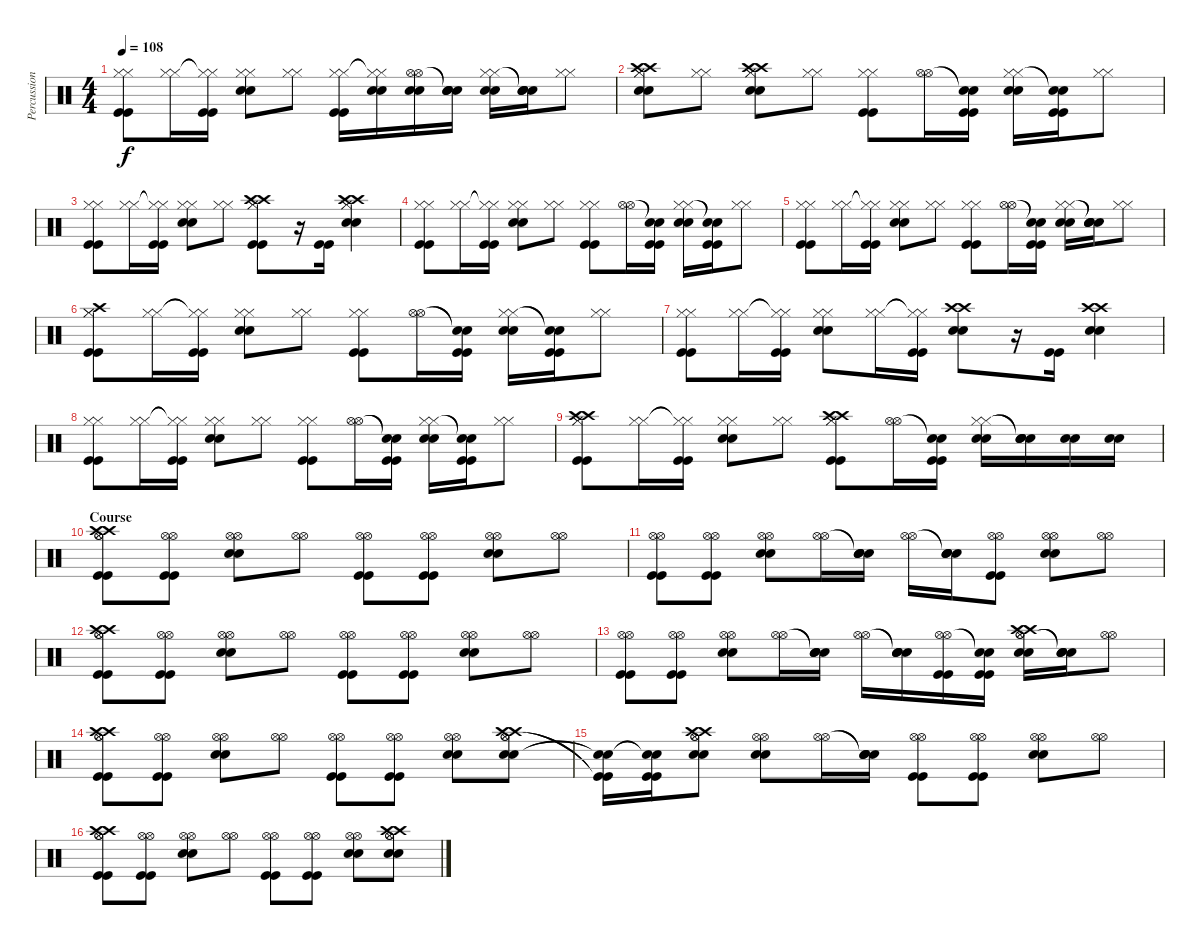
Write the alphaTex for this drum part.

\track ("Percussion" "Percussion") {instrument percussion}
\staff {score}
\articulation defaults
\ts (4 4)
\tempo 108
\clef neutral
\ks c
("Hi-Hat (closed)" "Hi-Hat (closed)" "Kick (hit)" "Kick (hit)").8{dy f} ("Hi-Hat (closed)" "Hi-Hat (closed)").16 ("Hi-Hat (closed)"{t} "Hi-Hat (closed)"{t} "Kick (hit)" "Kick (hit)").16 ("Hi-Hat (closed)" "Hi-Hat (closed)" "Electric Snare (hit)" "Electric Snare (hit)").8 ("Hi-Hat (closed)" "Hi-Hat (closed)").8 ("Hi-Hat (closed)" "Hi-Hat (closed)" "Kick (hit)" "Kick (hit)").16 ("Hi-Hat (closed)"{t} "Hi-Hat (closed)"{t} "Electric Snare (hit)" "Electric Snare (hit)").16 ("Hi-Hat (open)" "Hi-Hat (open)" "Electric Snare (hit)" "Electric Snare (hit)").16 ("Snare (hit)"{t} "Snare (hit)"{t} "Electric Snare (hit)" "Electric Snare (hit)").16 ("Hi-Hat (closed)" "Hi-Hat (closed)" "Electric Snare (hit)" "Electric Snare (hit)").16 ("Snare (hit)"{t} "Snare (hit)"{t} "Electric Snare (hit)" "Electric Snare (hit)").16 ("Hi-Hat (closed)" "Hi-Hat (closed)").8 |
("Hi-Hat (closed)" "Hi-Hat (closed)" "Electric Snare (hit)" "Electric Snare (hit)" "Crash high (hit)" "Crash high (hit)").8 ("Hi-Hat (closed)" "Hi-Hat (closed)").8 ("Hi-Hat (closed)" "Hi-Hat (closed)" "Electric Snare (hit)" "Electric Snare (hit)" "Crash high (hit)" "Crash high (hit)").8 ("Hi-Hat (closed)" "Hi-Hat (closed)").8 ("Hi-Hat (closed)" "Hi-Hat (closed)" "Kick (hit)" "Kick (hit)").8 ("Hi-Hat (open)" "Hi-Hat (open)").16 ("Snare (hit)"{t} "Snare (hit)"{t} "Kick (hit)" "Kick (hit)").16 ("Hi-Hat (closed)" "Hi-Hat (closed)" "Electric Snare (hit)" "Electric Snare (hit)").16 ("Snare (hit)"{t} "Snare (hit)"{t} "Kick (hit)" "Kick (hit)").16 ("Hi-Hat (closed)" "Hi-Hat (closed)").8 |
("Hi-Hat (closed)" "Hi-Hat (closed)" "Kick (hit)" "Kick (hit)").8 ("Hi-Hat (closed)" "Hi-Hat (closed)").16 ("Hi-Hat (closed)"{t} "Hi-Hat (closed)"{t} "Kick (hit)" "Kick (hit)").16 ("Hi-Hat (closed)" "Hi-Hat (closed)" "Electric Snare (hit)" "Electric Snare (hit)").8 ("Hi-Hat (closed)" "Hi-Hat (closed)").8 ("Hi-Hat (closed)" "Hi-Hat (closed)" "Kick (hit)" "Kick (hit)" "Crash high (hit)" "Crash high (hit)").8 r.16 ("Kick (hit)" "Kick (hit)").16 ("Hi-Hat (closed)" "Hi-Hat (closed)" "Electric Snare (hit)" "Electric Snare (hit)" "Crash high (hit)" "Crash high (hit)").4 |
("Hi-Hat (closed)" "Hi-Hat (closed)" "Kick (hit)" "Kick (hit)").8 ("Hi-Hat (closed)" "Hi-Hat (closed)").16 ("Hi-Hat (closed)"{t} "Hi-Hat (closed)"{t} "Kick (hit)" "Kick (hit)").16 ("Hi-Hat (closed)" "Hi-Hat (closed)" "Electric Snare (hit)" "Electric Snare (hit)").8 ("Hi-Hat (closed)" "Hi-Hat (closed)").8 ("Hi-Hat (closed)" "Hi-Hat (closed)" "Kick (hit)" "Kick (hit)").8 ("Hi-Hat (open)" "Hi-Hat (open)").16 ("Snare (hit)"{t} "Snare (hit)"{t} "Kick (hit)" "Kick (hit)").16 ("Hi-Hat (closed)" "Hi-Hat (closed)" "Electric Snare (hit)" "Electric Snare (hit)").16 ("Snare (hit)"{t} "Snare (hit)"{t} "Kick (hit)" "Kick (hit)").16 ("Hi-Hat (closed)" "Hi-Hat (closed)").8 |
("Hi-Hat (closed)" "Hi-Hat (closed)" "Kick (hit)" "Kick (hit)").8 ("Hi-Hat (closed)" "Hi-Hat (closed)").16 ("Hi-Hat (closed)"{t} "Hi-Hat (closed)"{t} "Kick (hit)" "Kick (hit)").16 ("Hi-Hat (closed)" "Hi-Hat (closed)" "Electric Snare (hit)" "Electric Snare (hit)").8 ("Hi-Hat (closed)" "Hi-Hat (closed)").8 ("Hi-Hat (closed)" "Hi-Hat (closed)" "Kick (hit)" "Kick (hit)").8 ("Hi-Hat (open)" "Hi-Hat (open)").16 ("Snare (hit)"{t} "Snare (hit)"{t} "Kick (hit)" "Kick (hit)").16 ("Hi-Hat (closed)" "Hi-Hat (closed)" "Electric Snare (hit)" "Electric Snare (hit)").16 ("Snare (hit)"{t} "Snare (hit)"{t} "Electric Snare (hit)" "Electric Snare (hit)").16 ("Hi-Hat (closed)" "Hi-Hat (closed)").8 |
("Hi-Hat (closed)" "Hi-Hat (closed)" "Kick (hit)" "Kick (hit)" "Crash high (hit)").8 ("Hi-Hat (closed)" "Hi-Hat (closed)").16 ("Hi-Hat (closed)"{t} "Hi-Hat (closed)"{t} "Kick (hit)" "Kick (hit)").16 ("Hi-Hat (closed)" "Hi-Hat (closed)" "Electric Snare (hit)" "Electric Snare (hit)").8 ("Hi-Hat (closed)" "Hi-Hat (closed)").8 ("Hi-Hat (closed)" "Hi-Hat (closed)" "Kick (hit)" "Kick (hit)").8 ("Hi-Hat (open)" "Hi-Hat (open)").16 ("Snare (hit)"{t} "Snare (hit)"{t} "Kick (hit)" "Kick (hit)").16 ("Hi-Hat (closed)" "Hi-Hat (closed)" "Electric Snare (hit)" "Electric Snare (hit)").16 ("Snare (hit)"{t} "Snare (hit)"{t} "Kick (hit)" "Kick (hit)").16 ("Hi-Hat (closed)" "Hi-Hat (closed)").8 |
("Hi-Hat (closed)" "Hi-Hat (closed)" "Kick (hit)" "Kick (hit)").8 ("Hi-Hat (closed)" "Hi-Hat (closed)").16 ("Hi-Hat (closed)"{t} "Hi-Hat (closed)"{t} "Kick (hit)" "Kick (hit)").16 ("Hi-Hat (closed)" "Hi-Hat (closed)" "Electric Snare (hit)" "Electric Snare (hit)").8 ("Hi-Hat (closed)" "Hi-Hat (closed)").16 ("Hi-Hat (closed)"{t} "Hi-Hat (closed)"{t} "Kick (hit)" "Kick (hit)").16 ("Crash high (hit)" "Crash high (hit)" "Electric Snare (hit)" "Electric Snare (hit)").8 r.16 ("Kick (hit)" "Kick (hit)").16 ("Crash high (hit)" "Crash high (hit)" "Electric Snare (hit)" "Electric Snare (hit)").4 |
("Hi-Hat (closed)" "Hi-Hat (closed)" "Kick (hit)" "Kick (hit)").8 ("Hi-Hat (closed)" "Hi-Hat (closed)").16 ("Hi-Hat (closed)"{t} "Hi-Hat (closed)"{t} "Kick (hit)" "Kick (hit)").16 ("Hi-Hat (closed)" "Hi-Hat (closed)" "Electric Snare (hit)" "Electric Snare (hit)").8 ("Hi-Hat (closed)" "Hi-Hat (closed)").8 ("Hi-Hat (closed)" "Hi-Hat (closed)" "Kick (hit)" "Kick (hit)").8 ("Hi-Hat (open)" "Hi-Hat (open)").16 ("Snare (hit)"{t} "Snare (hit)"{t} "Kick (hit)" "Kick (hit)").16 ("Hi-Hat (closed)" "Hi-Hat (closed)" "Electric Snare (hit)" "Electric Snare (hit)").16 ("Snare (hit)"{t} "Snare (hit)"{t} "Kick (hit)" "Kick (hit)").16 ("Hi-Hat (closed)" "Hi-Hat (closed)").8 |
("Hi-Hat (closed)" "Hi-Hat (closed)" "Kick (hit)" "Kick (hit)" "Crash high (hit)" "Crash high (hit)").8 ("Hi-Hat (closed)" "Hi-Hat (closed)").16 ("Hi-Hat (closed)"{t} "Hi-Hat (closed)"{t} "Kick (hit)" "Kick (hit)").16 ("Hi-Hat (closed)" "Hi-Hat (closed)" "Electric Snare (hit)" "Electric Snare (hit)").8 ("Hi-Hat (closed)" "Hi-Hat (closed)").8 ("Hi-Hat (closed)" "Hi-Hat (closed)" "Kick (hit)" "Kick (hit)" "Crash high (hit)" "Crash high (hit)").8 ("Hi-Hat (open)" "Hi-Hat (open)").16 ("Snare (hit)"{t} "Snare (hit)"{t} "Kick (hit)" "Kick (hit)").16 ("Hi-Hat (closed)" "Hi-Hat (closed)" "Electric Snare (hit)" "Electric Snare (hit)").16 ("Snare (hit)"{t} "Snare (hit)"{t} "Electric Snare (hit)" "Electric Snare (hit)").16 ("Electric Snare (hit)" "Electric Snare (hit)").16 ("Electric Snare (hit)" "Electric Snare (hit)").16 |
\section ("" "Course")
("Hi-Hat (open)" "Hi-Hat (open)" "Kick (hit)" "Kick (hit)" "Crash high (hit)" "Crash high (hit)").8 ("Hi-Hat (open)" "Hi-Hat (open)" "Kick (hit)" "Kick (hit)").8 ("Hi-Hat (open)" "Hi-Hat (open)" "Electric Snare (hit)" "Electric Snare (hit)").8 ("Hi-Hat (open)" "Hi-Hat (open)").8 ("Hi-Hat (open)" "Hi-Hat (open)" "Kick (hit)" "Kick (hit)").8 ("Hi-Hat (open)" "Hi-Hat (open)" "Kick (hit)" "Kick (hit)").8 ("Hi-Hat (open)" "Hi-Hat (open)" "Electric Snare (hit)" "Electric Snare (hit)").8 ("Hi-Hat (open)" "Hi-Hat (open)").8 |
("Hi-Hat (open)" "Hi-Hat (open)" "Kick (hit)" "Kick (hit)").8 ("Hi-Hat (open)" "Hi-Hat (open)" "Kick (hit)" "Kick (hit)").8 ("Hi-Hat (open)" "Hi-Hat (open)" "Electric Snare (hit)" "Electric Snare (hit)").8 ("Hi-Hat (open)" "Hi-Hat (open)").16 ("Snare (hit)"{t} "Snare (hit)"{t} "Electric Snare (hit)" "Electric Snare (hit)").16 ("Hi-Hat (open)" "Hi-Hat (open)").16 ("Snare (hit)"{t} "Snare (hit)"{t} "Electric Snare (hit)" "Electric Snare (hit)").16 ("Hi-Hat (open)" "Hi-Hat (open)" "Kick (hit)" "Kick (hit)").8 ("Hi-Hat (open)" "Hi-Hat (open)" "Electric Snare (hit)" "Electric Snare (hit)").8 ("Hi-Hat (open)" "Hi-Hat (open)").8 |
("Hi-Hat (open)" "Hi-Hat (open)" "Kick (hit)" "Kick (hit)" "Crash high (hit)" "Crash high (hit)").8 ("Hi-Hat (open)" "Hi-Hat (open)" "Kick (hit)" "Kick (hit)").8 ("Hi-Hat (open)" "Hi-Hat (open)" "Electric Snare (hit)" "Electric Snare (hit)").8 ("Hi-Hat (open)" "Hi-Hat (open)").8 ("Hi-Hat (open)" "Hi-Hat (open)" "Kick (hit)" "Kick (hit)").8 ("Hi-Hat (open)" "Hi-Hat (open)" "Kick (hit)" "Kick (hit)").8 ("Hi-Hat (open)" "Hi-Hat (open)" "Electric Snare (hit)" "Electric Snare (hit)").8 ("Hi-Hat (open)" "Hi-Hat (open)").8 |
("Hi-Hat (open)" "Hi-Hat (open)" "Kick (hit)" "Kick (hit)").8 ("Hi-Hat (open)" "Hi-Hat (open)" "Kick (hit)" "Kick (hit)").8 ("Hi-Hat (open)" "Hi-Hat (open)" "Electric Snare (hit)" "Electric Snare (hit)").8 ("Hi-Hat (open)" "Hi-Hat (open)").16 ("Snare (hit)"{t} "Snare (hit)"{t} "Electric Snare (hit)" "Electric Snare (hit)").16 ("Hi-Hat (open)" "Hi-Hat (open)").16 ("Snare (hit)"{t} "Snare (hit)"{t} "Electric Snare (hit)" "Electric Snare (hit)").16 ("Hi-Hat (open)" "Hi-Hat (open)" "Kick (hit)" "Kick (hit)").16 ("Snare (hit)"{t} "Snare (hit)"{t} "Kick (hit)" "Kick (hit)").16 ("Hi-Hat (open)" "Hi-Hat (open)" "Electric Snare (hit)" "Electric Snare (hit)" "Crash high (hit)" "Crash high (hit)").16 ("Snare (hit)"{t} "Snare (hit)"{t} "Electric Snare (hit)" "Electric Snare (hit)").16 ("Hi-Hat (open)" "Hi-Hat (open)").8 |
("Hi-Hat (open)" "Hi-Hat (open)" "Kick (hit)" "Kick (hit)" "Crash high (hit)" "Crash high (hit)").8 ("Hi-Hat (open)" "Hi-Hat (open)" "Kick (hit)" "Kick (hit)").8 ("Hi-Hat (open)" "Hi-Hat (open)" "Electric Snare (hit)" "Electric Snare (hit)").8 ("Hi-Hat (open)" "Hi-Hat (open)").8 ("Hi-Hat (open)" "Hi-Hat (open)" "Kick (hit)" "Kick (hit)").8 ("Hi-Hat (open)" "Hi-Hat (open)" "Kick (hit)" "Kick (hit)").8 ("Hi-Hat (open)" "Hi-Hat (open)" "Electric Snare (hit)" "Electric Snare (hit)").8 ("Hi-Hat (open)" "Hi-Hat (open)" "Electric Snare (hit)" "Electric Snare (hit)" "Crash high (hit)" "Crash high (hit)").8 |
("Kick (hit)"{t} "Kick (hit)"{t} "Snare (hit)"{t} "Snare (hit)"{t}).16 ("Kick (hit)" "Kick (hit)" "Snare (hit)"{t} "Snare (hit)"{t}).16 ("Hi-Hat (open)" "Hi-Hat (open)" "Electric Snare (hit)" "Electric Snare (hit)" "Crash high (hit)" "Crash high (hit)").8 ("Hi-Hat (open)" "Hi-Hat (open)" "Electric Snare (hit)" "Electric Snare (hit)").8 ("Hi-Hat (open)" "Hi-Hat (open)").16 ("Snare (hit)"{t} "Snare (hit)"{t} "Electric Snare (hit)" "Electric Snare (hit)").16 ("Hi-Hat (open)" "Hi-Hat (open)" "Kick (hit)" "Kick (hit)").8 ("Hi-Hat (open)" "Hi-Hat (open)" "Kick (hit)" "Kick (hit)").8 ("Hi-Hat (open)" "Hi-Hat (open)" "Electric Snare (hit)" "Electric Snare (hit)").8 ("Hi-Hat (open)" "Hi-Hat (open)").8 |
("Hi-Hat (open)" "Hi-Hat (open)" "Kick (hit)" "Kick (hit)" "Crash high (hit)" "Crash high (hit)").8 ("Hi-Hat (open)" "Hi-Hat (open)" "Kick (hit)" "Kick (hit)").8 ("Hi-Hat (open)" "Hi-Hat (open)" "Electric Snare (hit)" "Electric Snare (hit)").8 ("Hi-Hat (open)" "Hi-Hat (open)").8 ("Hi-Hat (open)" "Hi-Hat (open)" "Kick (hit)" "Kick (hit)").8 ("Hi-Hat (open)" "Hi-Hat (open)" "Kick (hit)" "Kick (hit)").8 ("Hi-Hat (open)" "Hi-Hat (open)" "Electric Snare (hit)" "Electric Snare (hit)").8 ("Hi-Hat (open)" "Hi-Hat (open)" "Electric Snare (hit)" "Electric Snare (hit)" "Crash high (hit)" "Crash high (hit)").8
